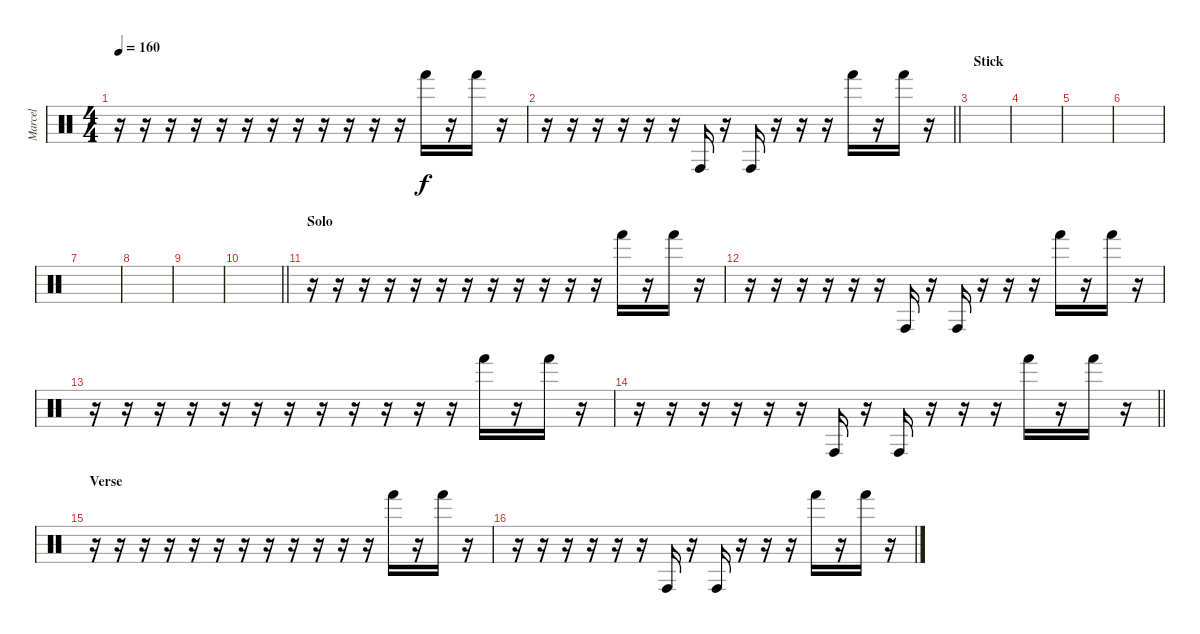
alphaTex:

\track ("Marcel" "Marcel") {instrument percussion}
\staff {score}
\articulation defaults
\ts (4 4)
\tempo 160
\clef neutral
\ks c
r.16{dy f} r.16 r.16 r.16 r.16 r.16 r.16 r.16 r.16 r.16 r.16 r.16 "Hand (hit)".16 r.16 "Hand (hit)".16 r.16 |
\barLineRight lightlight
r.16 r.16 r.16 r.16 r.16 r.16 "Conga high (hit)".16 r.16 "Conga high (hit)".16 r.16 r.16 r.16 "Hand (hit)".16 r.16 "Hand (hit)".16 r.16 |
\section ("" "Stick")
|
|
|
|
|
|
|
\barLineRight lightlight
|
\section ("" "Solo")
r.16 r.16 r.16 r.16 r.16 r.16 r.16 r.16 r.16 r.16 r.16 r.16 "Hand (hit)".16 r.16 "Hand (hit)".16 r.16 |
r.16 r.16 r.16 r.16 r.16 r.16 "Conga high (hit)".16 r.16 "Conga high (hit)".16 r.16 r.16 r.16 "Hand (hit)".16 r.16 "Hand (hit)".16 r.16 |
r.16 r.16 r.16 r.16 r.16 r.16 r.16 r.16 r.16 r.16 r.16 r.16 "Hand (hit)".16 r.16 "Hand (hit)".16 r.16 |
\barLineRight lightlight
r.16 r.16 r.16 r.16 r.16 r.16 "Conga high (hit)".16 r.16 "Conga high (hit)".16 r.16 r.16 r.16 "Hand (hit)".16 r.16 "Hand (hit)".16 r.16 |
\section ("" "Verse")
r.16 r.16 r.16 r.16 r.16 r.16 r.16 r.16 r.16 r.16 r.16 r.16 "Hand (hit)".16 r.16 "Hand (hit)".16 r.16 |
r.16 r.16 r.16 r.16 r.16 r.16 "Conga high (hit)".16 r.16 "Conga high (hit)".16 r.16 r.16 r.16 "Hand (hit)".16 r.16 "Hand (hit)".16 r.16
